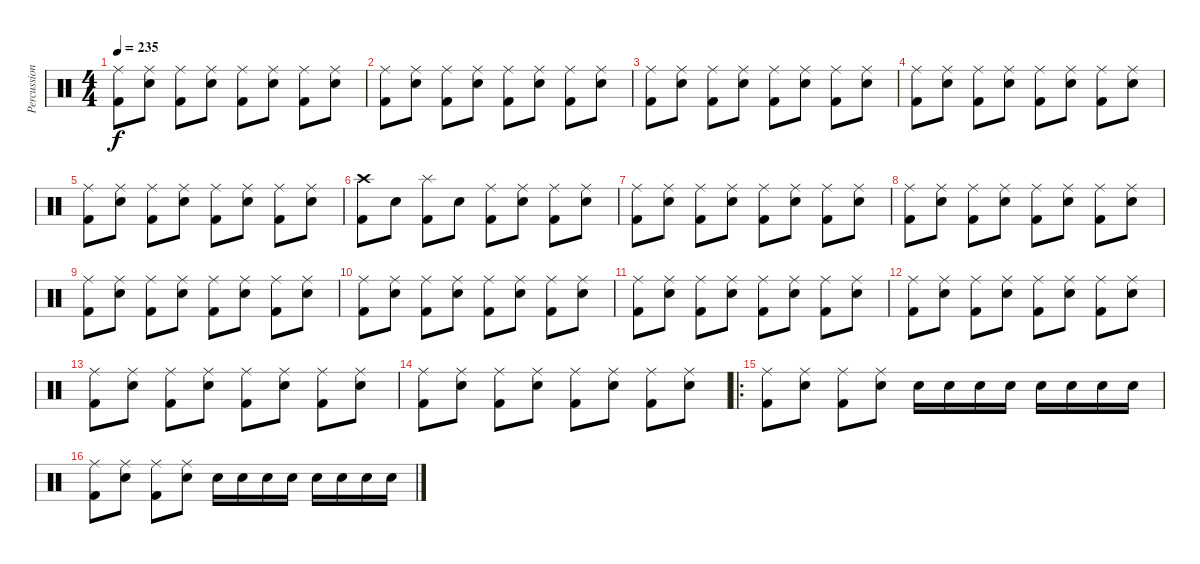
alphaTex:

\track ("Percussion- Scott Raynor" "Percussion") {instrument percussion}
\staff {score}
\articulation defaults
\ts (4 4)
\tempo 235
\clef neutral
\ks c
("Ride (middle)" "Kick (hit) 2").8{dy f} ("Ride (middle)" "Snare (hit) 2").8 ("Ride (middle)" "Kick (hit) 2").8 ("Ride (middle)" "Snare (hit) 2").8 ("Ride (middle)" "Kick (hit) 2").8 ("Ride (middle)" "Snare (hit) 2").8 ("Ride (middle)" "Kick (hit) 2").8 ("Ride (middle)" "Snare (hit) 2").8 |
("Ride (middle)" "Kick (hit) 2").8 ("Ride (middle)" "Snare (hit) 2").8 ("Ride (middle)" "Kick (hit) 2").8 ("Ride (middle)" "Snare (hit) 2").8 ("Ride (middle)" "Kick (hit) 2").8 ("Ride (middle)" "Snare (hit) 2").8 ("Ride (middle)" "Kick (hit) 2").8 ("Ride (middle)" "Snare (hit) 2").8 |
("Ride (middle)" "Kick (hit) 2").8 ("Ride (middle)" "Snare (hit) 2").8 ("Ride (middle)" "Kick (hit) 2").8 ("Ride (middle)" "Snare (hit) 2").8 ("Ride (middle)" "Kick (hit) 2").8 ("Ride (middle)" "Snare (hit) 2").8 ("Ride (middle)" "Kick (hit) 2").8 ("Ride (middle)" "Snare (hit) 2").8 |
("Ride (middle)" "Kick (hit) 2").8 ("Ride (middle)" "Snare (hit) 2").8 ("Ride (middle)" "Kick (hit) 2").8 ("Ride (middle)" "Snare (hit) 2").8 ("Ride (middle)" "Kick (hit) 2").8 ("Ride (middle)" "Snare (hit) 2").8 ("Ride (middle)" "Kick (hit) 2").8 ("Ride (middle)" "Snare (hit) 2").8 |
("Ride (middle)" "Kick (hit) 2").8 ("Ride (middle)" "Snare (hit) 2").8 ("Ride (middle)" "Kick (hit) 2").8 ("Ride (middle)" "Snare (hit) 2").8 ("Ride (middle)" "Kick (hit) 2").8 ("Ride (middle)" "Snare (hit) 2").8 ("Ride (middle)" "Kick (hit) 2").8 ("Ride (middle)" "Snare (hit) 2").8 |
("Crash high (hit)" "Kick (hit) 2").8 "Snare (hit) 2".8 ("Splash (hit)" "Kick (hit) 2").8 "Snare (hit) 2".8 ("Ride (middle)" "Kick (hit) 2").8 ("Ride (middle)" "Snare (hit) 2").8 ("Ride (middle)" "Kick (hit) 2").8 ("Ride (middle)" "Snare (hit) 2").8 |
("Ride (middle)" "Kick (hit) 2").8 ("Ride (middle)" "Snare (hit) 2").8 ("Ride (middle)" "Kick (hit) 2").8 ("Ride (middle)" "Snare (hit) 2").8 ("Ride (middle)" "Kick (hit) 2").8 ("Ride (middle)" "Snare (hit) 2").8 ("Ride (middle)" "Kick (hit) 2").8 ("Ride (middle)" "Snare (hit) 2").8 |
("Ride (middle)" "Kick (hit) 2").8 ("Ride (middle)" "Snare (hit) 2").8 ("Ride (middle)" "Kick (hit) 2").8 ("Ride (middle)" "Snare (hit) 2").8 ("Ride (middle)" "Kick (hit) 2").8 ("Ride (middle)" "Snare (hit) 2").8 ("Ride (middle)" "Kick (hit) 2").8 ("Ride (middle)" "Snare (hit) 2").8 |
("Ride (middle)" "Kick (hit) 2").8 ("Ride (middle)" "Snare (hit) 2").8 ("Ride (middle)" "Kick (hit) 2").8 ("Ride (middle)" "Snare (hit) 2").8 ("Ride (middle)" "Kick (hit) 2").8 ("Ride (middle)" "Snare (hit) 2").8 ("Ride (middle)" "Kick (hit) 2").8 ("Ride (middle)" "Snare (hit) 2").8 |
("Ride (middle)" "Kick (hit) 2").8 ("Ride (middle)" "Snare (hit) 2").8 ("Ride (middle)" "Kick (hit) 2").8 ("Ride (middle)" "Snare (hit) 2").8 ("Ride (middle)" "Kick (hit) 2").8 ("Ride (middle)" "Snare (hit) 2").8 ("Ride (middle)" "Kick (hit) 2").8 ("Ride (middle)" "Snare (hit) 2").8 |
("Ride (middle)" "Kick (hit) 2").8 ("Ride (middle)" "Snare (hit) 2").8 ("Ride (middle)" "Kick (hit) 2").8 ("Ride (middle)" "Snare (hit) 2").8 ("Ride (middle)" "Kick (hit) 2").8 ("Ride (middle)" "Snare (hit) 2").8 ("Ride (middle)" "Kick (hit) 2").8 ("Ride (middle)" "Snare (hit) 2").8 |
("Ride (middle)" "Kick (hit) 2").8 ("Ride (middle)" "Snare (hit) 2").8 ("Ride (middle)" "Kick (hit) 2").8 ("Ride (middle)" "Snare (hit) 2").8 ("Ride (middle)" "Kick (hit) 2").8 ("Ride (middle)" "Snare (hit) 2").8 ("Ride (middle)" "Kick (hit) 2").8 ("Ride (middle)" "Snare (hit) 2").8 |
("Ride (middle)" "Kick (hit) 2").8 ("Ride (middle)" "Snare (hit) 2").8 ("Ride (middle)" "Kick (hit) 2").8 ("Ride (middle)" "Snare (hit) 2").8 ("Ride (middle)" "Kick (hit) 2").8 ("Ride (middle)" "Snare (hit) 2").8 ("Ride (middle)" "Kick (hit) 2").8 ("Ride (middle)" "Snare (hit) 2").8 |
("Ride (middle)" "Kick (hit) 2").8 ("Ride (middle)" "Snare (hit) 2").8 ("Ride (middle)" "Kick (hit) 2").8 ("Ride (middle)" "Snare (hit) 2").8 ("Ride (middle)" "Kick (hit) 2").8 ("Ride (middle)" "Snare (hit) 2").8 ("Ride (middle)" "Kick (hit) 2").8 ("Ride (middle)" "Snare (hit) 2").8 |
\ro
("Ride (middle)" "Kick (hit) 2").8 ("Ride (middle)" "Snare (hit) 2").8 ("Ride (middle)" "Kick (hit) 2").8 ("Ride (middle)" "Snare (hit) 2").8 "Snare (hit) 2".16 "Snare (hit) 2".16 "Snare (hit) 2".16 "Snare (hit) 2".16 "Snare (hit) 2".16 "Snare (hit) 2".16 "Snare (hit) 2".16 "Snare (hit) 2".16 |
("Ride (middle)" "Kick (hit) 2").8 ("Ride (middle)" "Snare (hit) 2").8 ("Ride (middle)" "Kick (hit) 2").8 ("Ride (middle)" "Snare (hit) 2").8 "Snare (hit) 2".16 "Snare (hit) 2".16 "Snare (hit) 2".16 "Snare (hit) 2".16 "Snare (hit) 2".16 "Snare (hit) 2".16 "Snare (hit) 2".16 "Snare (hit) 2".16
